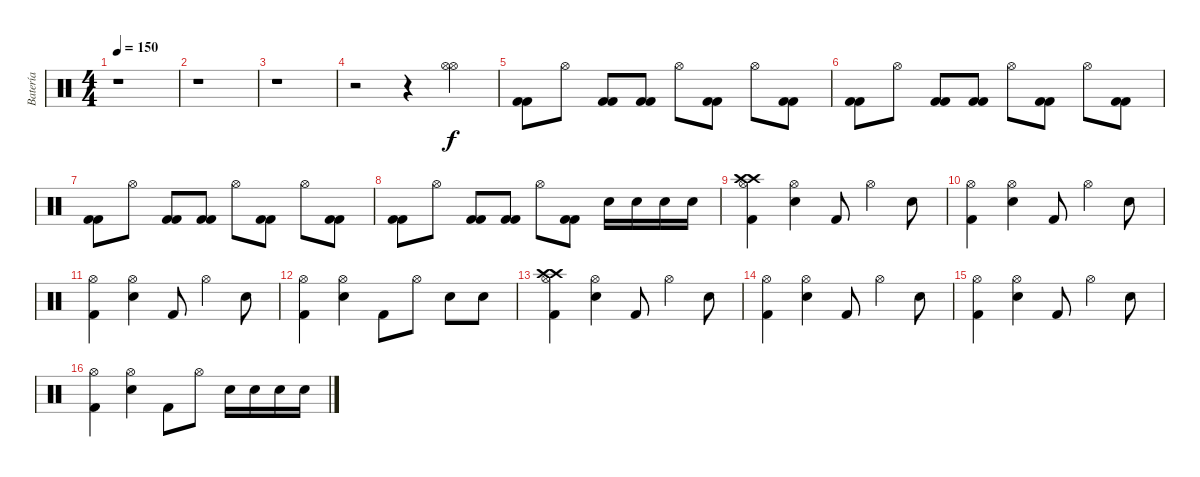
\track ("Batería" "Batería") {instrument percussion}
\staff {score}
\articulation defaults
\ts (4 4)
\tempo 150
\clef neutral
\ks c
r.1{dy f} |
r.1 |
r.1 |
r.2 r.4 ("Hi-Hat (open)" "Hi-Hat (open)").4 |
("Kick (hit) 2" "Kick (hit) 2").8 "Hi-Hat (open)".8 ("Kick (hit) 2" "Kick (hit) 2").8 ("Kick (hit) 2" "Kick (hit) 2").8 "Hi-Hat (open)".8 ("Kick (hit) 2" "Kick (hit) 2").8 "Hi-Hat (open)".8 ("Kick (hit) 2" "Kick (hit) 2").8 |
("Kick (hit) 2" "Kick (hit) 2").8 "Hi-Hat (open)".8 ("Kick (hit) 2" "Kick (hit) 2").8 ("Kick (hit) 2" "Kick (hit) 2").8 "Hi-Hat (open)".8 ("Kick (hit) 2" "Kick (hit) 2").8 "Hi-Hat (open)".8 ("Kick (hit) 2" "Kick (hit) 2").8 |
("Kick (hit) 2" "Kick (hit) 2").8 "Hi-Hat (open)".8 ("Kick (hit) 2" "Kick (hit) 2").8 ("Kick (hit) 2" "Kick (hit) 2").8 "Hi-Hat (open)".8 ("Kick (hit) 2" "Kick (hit) 2").8 "Hi-Hat (open)".8 ("Kick (hit) 2" "Kick (hit) 2").8 |
("Kick (hit) 2" "Kick (hit) 2").8 "Hi-Hat (open)".8 ("Kick (hit) 2" "Kick (hit) 2").8 ("Kick (hit) 2" "Kick (hit) 2").8 "Hi-Hat (open)".8 ("Kick (hit) 2" "Kick (hit) 2").8 "Snare (hit) 2".16 "Snare (hit) 2".16 "Snare (hit) 2".16 "Snare (hit) 2".16 |
("Crash high (hit)" "Crash high (hit)" "Kick (hit) 2" "Hi-Hat (open)").4 ("Snare (hit) 2" "Hi-Hat (open)").4 "Kick (hit) 2".8 "Hi-Hat (open)".4 "Snare (hit) 2".8 |
("Kick (hit) 2" "Hi-Hat (open)").4 ("Snare (hit) 2" "Hi-Hat (open)").4 "Kick (hit) 2".8 "Hi-Hat (open)".4 "Snare (hit) 2".8 |
("Kick (hit) 2" "Hi-Hat (open)").4 ("Snare (hit) 2" "Hi-Hat (open)").4 "Kick (hit) 2".8 "Hi-Hat (open)".4 "Snare (hit) 2".8 |
("Kick (hit) 2" "Hi-Hat (open)").4 ("Snare (hit) 2" "Hi-Hat (open)").4 "Kick (hit) 2".8 "Hi-Hat (open)".8 "Snare (hit) 2".8 "Snare (hit) 2".8 |
("Crash high (hit)" "Crash high (hit)" "Kick (hit) 2" "Hi-Hat (open)").4 ("Snare (hit) 2" "Hi-Hat (open)").4 "Kick (hit) 2".8 "Hi-Hat (open)".4 "Snare (hit) 2".8 |
("Kick (hit) 2" "Hi-Hat (open)").4 ("Snare (hit) 2" "Hi-Hat (open)").4 "Kick (hit) 2".8 "Hi-Hat (open)".4 "Snare (hit) 2".8 |
("Kick (hit) 2" "Hi-Hat (open)").4 ("Snare (hit) 2" "Hi-Hat (open)").4 "Kick (hit) 2".8 "Hi-Hat (open)".4 "Snare (hit) 2".8 |
("Kick (hit) 2" "Hi-Hat (open)").4 ("Snare (hit) 2" "Hi-Hat (open)").4 "Kick (hit) 2".8 "Hi-Hat (open)".8 "Snare (hit) 2".16 "Snare (hit) 2".16 "Snare (hit) 2".16 "Snare (hit) 2".16
